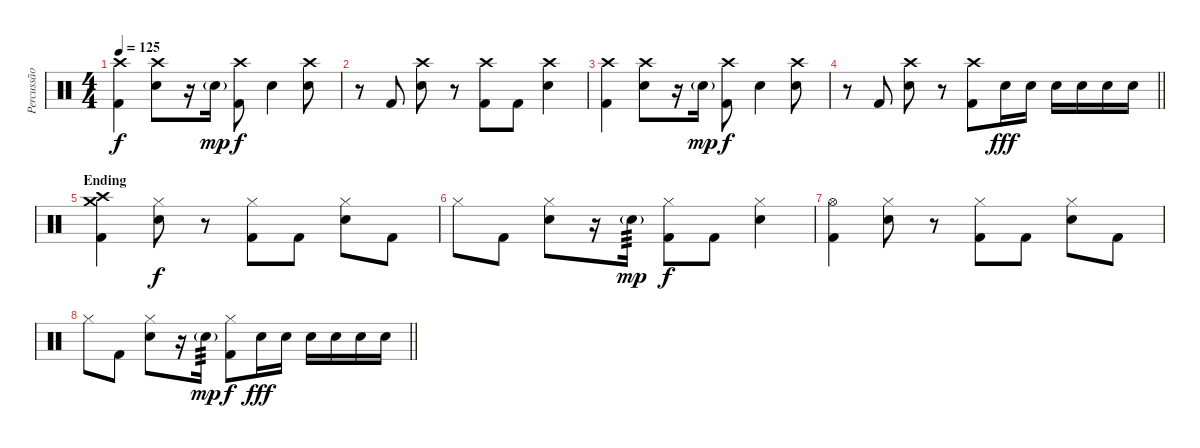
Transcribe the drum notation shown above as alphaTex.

\track ("Percussão" "Percussão") {instrument percussion}
\staff {score}
\articulation defaults
\ts (4 4)
\tempo 125
\clef neutral
\ks c
("Crash high (hit)" "Kick (hit) 2").4{dy f} ("Crash high (hit)" "Electric Snare (hit)").8 r.16 "Electric Snare (hit)"{g}.16{dy mp} ("Crash high (hit)" "Kick (hit) 2").8{dy f} "Electric Snare (hit)".4 ("Crash high (hit)" "Electric Snare (hit)").8 |
r.8 "Kick (hit) 2".8 ("Crash high (hit)" "Electric Snare (hit)").8 r.8 ("Crash high (hit)" "Kick (hit) 2").8 "Kick (hit) 2".8 ("Crash high (hit)" "Electric Snare (hit)").4 |
("Crash high (hit)" "Kick (hit) 2").4 ("Crash high (hit)" "Electric Snare (hit)").8 r.16 "Electric Snare (hit)"{g}.16{dy mp} ("Crash high (hit)" "Kick (hit) 2").8{dy f} "Electric Snare (hit)".4 ("Crash high (hit)" "Electric Snare (hit)").8 |
\barLineRight lightlight
r.8 "Kick (hit) 2".8 ("Crash high (hit)" "Electric Snare (hit)").8 r.8 ("Crash high (hit)" "Kick (hit) 2").8 "Electric Snare (hit)".16{dy fff} "Electric Snare (hit)".16 "Electric Snare (hit)".16 "Electric Snare (hit)".16 "Electric Snare (hit)".16 "Electric Snare (hit)".16 |
\section ("" "Ending")
("Crash medium (hit)" "Crash high (hit)" "Kick (hit) 2").4 ("Hi-Hat (closed)" "Electric Snare (hit)").8{dy f} r.8 ("Hi-Hat (closed)" "Kick (hit) 2").8 "Kick (hit) 2".8 ("Hi-Hat (closed)" "Electric Snare (hit)").8 "Kick (hit) 2".8 |
"Hi-Hat (closed)".8 "Kick (hit) 2".8 ("Hi-Hat (closed)" "Electric Snare (hit)").8 r.16 "Electric Snare (hit)"{g}.16{tp 3 dy mp} ("Hi-Hat (closed)" "Kick (hit) 2").8{dy f} "Kick (hit) 2".8 ("Hi-Hat (closed)" "Electric Snare (hit)").4 |
("Hi-Hat (open)" "Kick (hit) 2").4 ("Hi-Hat (closed)" "Electric Snare (hit)").8 r.8 ("Hi-Hat (closed)" "Kick (hit) 2").8 "Kick (hit) 2".8 ("Hi-Hat (closed)" "Electric Snare (hit)").8 "Kick (hit) 2".8 |
\barLineRight lightlight "Hi-Hat (closed)".8 "Kick (hit) 2".8
("Hi-Hat (closed)" "Electric Snare (hit)").8 r.16 "Electric Snare (hit)"{g}.16{tp 3 dy mp} ("Hi-Hat (closed)" "Kick (hit) 2").8{dy f} "Electric Snare (hit)".16{dy fff} "Electric Snare (hit)".16 "Electric Snare (hit)".16 "Electric Snare (hit)".16 "Electric Snare (hit)".16 "Electric Snare (hit)".16
